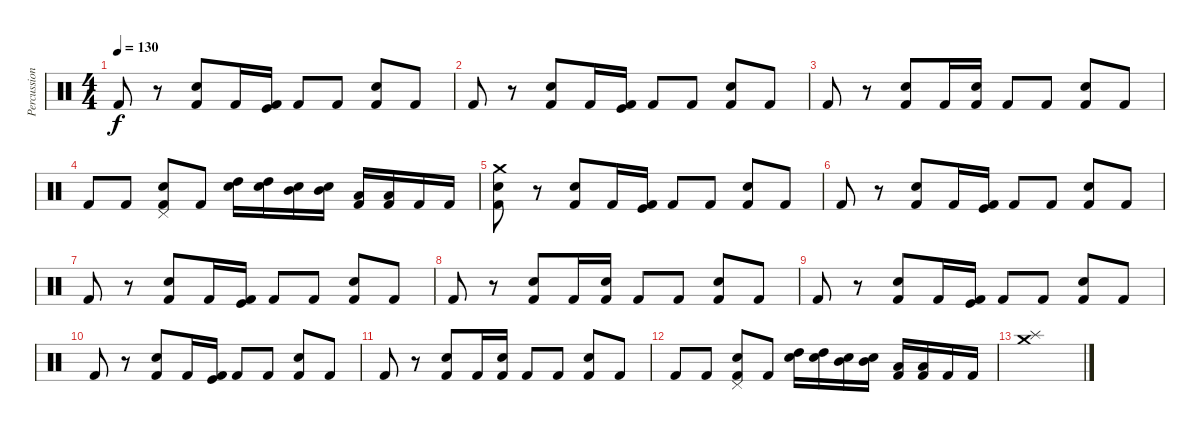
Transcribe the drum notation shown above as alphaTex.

\track ("Percussion" "Percussion") {instrument percussion}
\staff {score}
\articulation defaults
\ts (4 4)
\tempo 130
\clef neutral
\ks c "Kick (hit) 2".8{dy f}
r.8 ("Electric Snare (hit)" "Kick (hit) 2").8 "Kick (hit) 2".16 ("Kick (hit) 2" "Kick (hit)").16 "Kick (hit) 2".8 "Kick (hit) 2".8 ("Snare (hit) 2" "Kick (hit) 2").8 "Kick (hit) 2".8 |
"Kick (hit) 2".8 r.8 ("Electric Snare (hit)" "Kick (hit) 2").8 "Kick (hit) 2".16 ("Kick (hit) 2" "Kick (hit)").16 "Kick (hit) 2".8 "Kick (hit) 2".8 ("Snare (hit) 2" "Kick (hit) 2").8 "Kick (hit) 2".8 |
"Kick (hit) 2".8 r.8 ("Electric Snare (hit)" "Kick (hit) 2").8 "Kick (hit) 2".16 ("Kick (hit) 2" "Snare (hit) 2").16 "Kick (hit) 2".8 "Kick (hit) 2".8 ("Snare (hit) 2" "Kick (hit) 2").8 "Kick (hit) 2".8 |
"Kick (hit) 2".8 "Kick (hit) 2".8 ("Snare (hit) 2" "Kick (hit) 2" "Pedal Hi-Hat (hit)").8 "Kick (hit) 2".8 ("Electric Snare (hit)" "High Tom (hit)").16 ("Electric Snare (hit)" "High Tom (hit)").16 ("Electric Snare (hit)" "Mid Tom (hit)").16 ("Electric Snare (hit)" "Mid Tom (hit)").16 ("Kick (hit) 2" "Low Tom (hit)").16 ("Kick (hit) 2" "Low Tom (hit)").16 "Kick (hit) 2".16 "Kick (hit) 2".16 |
("Kick (hit) 2" "Snare (hit) 2" "Crash medium (hit)").8 r.8 ("Electric Snare (hit)" "Kick (hit) 2").8 "Kick (hit) 2".16 ("Kick (hit) 2" "Kick (hit)").16 "Kick (hit) 2".8 "Kick (hit) 2".8 ("Snare (hit) 2" "Kick (hit) 2").8 "Kick (hit) 2".8 |
"Kick (hit) 2".8 r.8 ("Electric Snare (hit)" "Kick (hit) 2").8 "Kick (hit) 2".16 ("Kick (hit) 2" "Kick (hit)").16 "Kick (hit) 2".8 "Kick (hit) 2".8 ("Snare (hit) 2" "Kick (hit) 2").8 "Kick (hit) 2".8 |
"Kick (hit) 2".8 r.8 ("Electric Snare (hit)" "Kick (hit) 2").8 "Kick (hit) 2".16 ("Kick (hit) 2" "Kick (hit)").16 "Kick (hit) 2".8 "Kick (hit) 2".8 ("Snare (hit) 2" "Kick (hit) 2").8 "Kick (hit) 2".8 |
"Kick (hit) 2".8 r.8 ("Electric Snare (hit)" "Kick (hit) 2").8 "Kick (hit) 2".16 ("Kick (hit) 2" "Snare (hit) 2").16 "Kick (hit) 2".8 "Kick (hit) 2".8 ("Snare (hit) 2" "Kick (hit) 2").8 "Kick (hit) 2".8 |
"Kick (hit) 2".8 r.8 ("Electric Snare (hit)" "Kick (hit) 2").8 "Kick (hit) 2".16 ("Kick (hit) 2" "Kick (hit)").16 "Kick (hit) 2".8 "Kick (hit) 2".8 ("Snare (hit) 2" "Kick (hit) 2").8 "Kick (hit) 2".8 |
"Kick (hit) 2".8 r.8 ("Electric Snare (hit)" "Kick (hit) 2").8 "Kick (hit) 2".16 ("Kick (hit) 2" "Kick (hit)").16 "Kick (hit) 2".8 "Kick (hit) 2".8 ("Snare (hit) 2" "Kick (hit) 2").8 "Kick (hit) 2".8 |
"Kick (hit) 2".8 r.8 ("Electric Snare (hit)" "Kick (hit) 2").8 "Kick (hit) 2".16 ("Kick (hit) 2" "Snare (hit) 2").16 "Kick (hit) 2".8 "Kick (hit) 2".8 ("Snare (hit) 2" "Kick (hit) 2").8 "Kick (hit) 2".8 |
"Kick (hit) 2".8 "Kick (hit) 2".8 ("Snare (hit) 2" "Kick (hit) 2" "Pedal Hi-Hat (hit)").8 "Kick (hit) 2".8 ("Electric Snare (hit)" "High Tom (hit)").16 ("Electric Snare (hit)" "High Tom (hit)").16 ("Electric Snare (hit)" "Mid Tom (hit)").16 ("Electric Snare (hit)" "Mid Tom (hit)").16 ("Kick (hit) 2" "Low Tom (hit)").16 ("Kick (hit) 2" "Low Tom (hit)").16 "Kick (hit) 2".16 "Kick (hit) 2".16 |
("Crash medium (hit)" "Splash (hit)").1
